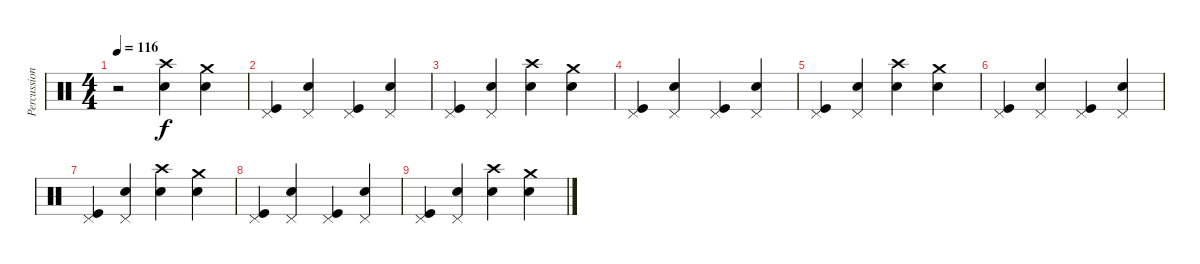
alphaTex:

\track ("Percussions" "Percussion") {instrument percussion}
\staff {score}
\articulation defaults
\ts (4 4)
\tempo 116
\clef neutral
\ks c
r.2{dy f} ("Electric Snare (hit)" "Crash high (hit)").4 ("Crash medium (hit)" "Electric Snare (hit)").4 |
("Pedal Hi-Hat (hit)" "Kick (hit)").4 ("Pedal Hi-Hat (hit)" "Electric Snare (hit)").4 ("Pedal Hi-Hat (hit)" "Kick (hit)").4 ("Pedal Hi-Hat (hit)" "Electric Snare (hit)").4 |
("Pedal Hi-Hat (hit)" "Kick (hit)").4 ("Pedal Hi-Hat (hit)" "Electric Snare (hit)").4 ("Electric Snare (hit)" "Crash high (hit)").4 ("Crash medium (hit)" "Electric Snare (hit)").4 |
("Pedal Hi-Hat (hit)" "Kick (hit)").4 ("Pedal Hi-Hat (hit)" "Electric Snare (hit)").4 ("Pedal Hi-Hat (hit)" "Kick (hit)").4 ("Pedal Hi-Hat (hit)" "Electric Snare (hit)").4 |
("Pedal Hi-Hat (hit)" "Kick (hit)").4 ("Pedal Hi-Hat (hit)" "Electric Snare (hit)").4 ("Electric Snare (hit)" "Crash high (hit)").4 ("Crash medium (hit)" "Electric Snare (hit)").4 |
("Pedal Hi-Hat (hit)" "Kick (hit)").4 ("Pedal Hi-Hat (hit)" "Electric Snare (hit)").4 ("Pedal Hi-Hat (hit)" "Kick (hit)").4 ("Pedal Hi-Hat (hit)" "Electric Snare (hit)").4 |
("Pedal Hi-Hat (hit)" "Kick (hit)").4 ("Pedal Hi-Hat (hit)" "Electric Snare (hit)").4 ("Electric Snare (hit)" "Crash high (hit)").4 ("Crash medium (hit)" "Electric Snare (hit)").4 |
("Pedal Hi-Hat (hit)" "Kick (hit)").4 ("Pedal Hi-Hat (hit)" "Electric Snare (hit)").4 ("Pedal Hi-Hat (hit)" "Kick (hit)").4 ("Pedal Hi-Hat (hit)" "Electric Snare (hit)").4 |
("Pedal Hi-Hat (hit)" "Kick (hit)").4 ("Pedal Hi-Hat (hit)" "Electric Snare (hit)").4 ("Electric Snare (hit)" "Crash high (hit)").4 ("Crash medium (hit)" "Electric Snare (hit)").4
